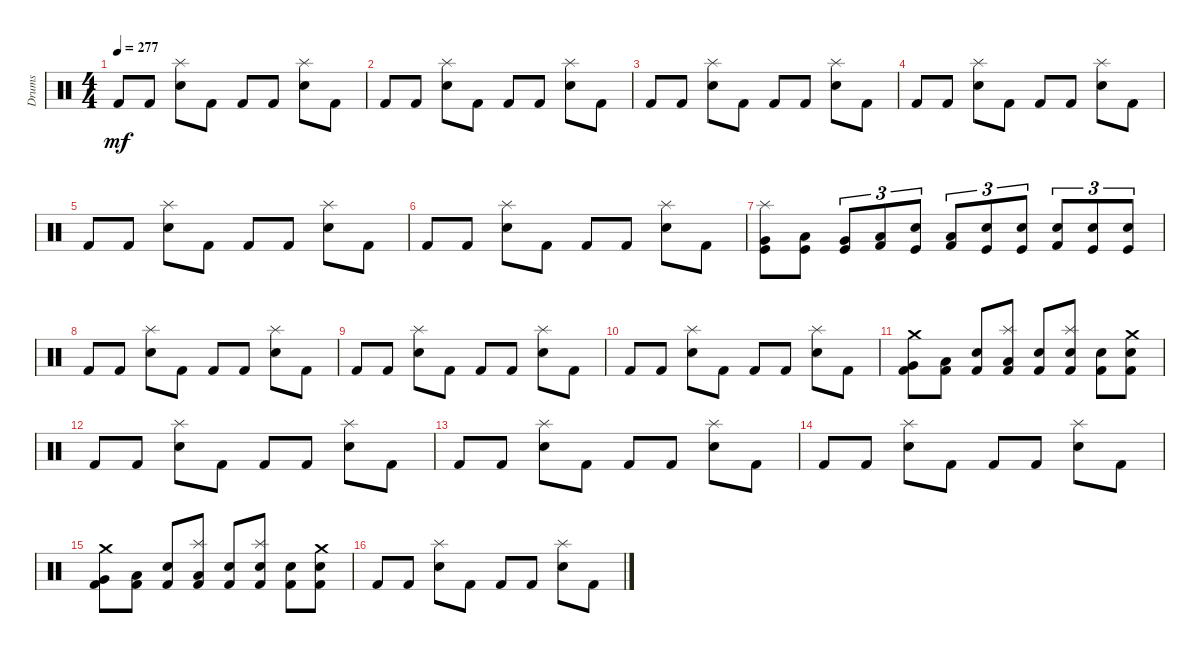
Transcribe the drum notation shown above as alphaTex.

\track ("Drums" "Drums") {instrument percussion}
\staff {score}
\articulation defaults
\ts (4 4)
\tempo 277
\clef neutral
\ks c "Kick (hit) 2".8{dy mf} "Kick (hit) 2".8
("Electric Snare (hit)" "Splash (hit)").8 "Kick (hit) 2".8 "Kick (hit) 2".8 "Kick (hit) 2".8 ("Splash (hit)" "Electric Snare (hit)").8 "Kick (hit) 2".8 |
"Kick (hit) 2".8 "Kick (hit) 2".8 ("Splash (hit)" "Electric Snare (hit)").8 "Kick (hit) 2".8 "Kick (hit) 2".8 "Kick (hit) 2".8 ("Splash (hit)" "Electric Snare (hit)").8 "Kick (hit) 2".8 |
"Kick (hit) 2".8 "Kick (hit) 2".8 ("Electric Snare (hit)" "Splash (hit)").8 "Kick (hit) 2".8 "Kick (hit) 2".8 "Kick (hit) 2".8 ("Electric Snare (hit)" "Splash (hit)").8 "Kick (hit) 2".8 |
"Kick (hit) 2".8 "Kick (hit) 2".8 ("Splash (hit)" "Electric Snare (hit)").8 "Kick (hit) 2".8 "Kick (hit) 2".8 "Kick (hit) 2".8 ("Electric Snare (hit)" "Splash (hit)").8 "Kick (hit) 2".8 |
"Kick (hit) 2".8 "Kick (hit) 2".8 ("Splash (hit)" "Electric Snare (hit)").8 "Kick (hit) 2".8 "Kick (hit) 2".8 "Kick (hit) 2".8 ("Electric Snare (hit)" "Splash (hit)").8 "Kick (hit) 2".8 |
"Kick (hit) 2".8 "Kick (hit) 2".8 ("Electric Snare (hit)" "Splash (hit)").8 "Kick (hit) 2".8 "Kick (hit) 2".8 "Kick (hit) 2".8 ("Splash (hit)" "Electric Snare (hit)").8 "Kick (hit) 2".8 |
("Very Low Tom (hit)" "Kick (hit)" "Splash (hit)").8 ("Low Floor Tom (hit)" "Kick (hit)").8 ("Very Low Tom (hit)" "Kick (hit)").8{tu (3 2)} ("Low Floor Tom (hit)" "Kick (hit) 2").8{tu (3 2)} ("Kick (hit)" "Electric Snare (hit)").8{tu (3 2)} ("Kick (hit) 2" "Low Floor Tom (hit)").8{tu (3 2)} ("Electric Snare (hit)" "Kick (hit)").8{tu (3 2)} ("Snare (hit) 2" "Kick (hit)").8{tu (3 2)} ("Kick (hit) 2" "Electric Snare (hit)").8{tu (3 2)} ("Snare (hit) 2" "Kick (hit)").8{tu (3 2)} ("Kick (hit)" "Electric Snare (hit)").8{tu (3 2)} |
"Kick (hit) 2".8 "Kick (hit) 2".8 ("Splash (hit)" "Electric Snare (hit)").8 "Kick (hit) 2".8 "Kick (hit) 2".8 "Kick (hit) 2".8 ("Electric Snare (hit)" "Splash (hit)").8 "Kick (hit) 2".8 |
"Kick (hit) 2".8 "Kick (hit) 2".8 ("Electric Snare (hit)" "Splash (hit)").8 "Kick (hit) 2".8 "Kick (hit) 2".8 "Kick (hit) 2".8 ("Electric Snare (hit)" "Splash (hit)").8 "Kick (hit) 2".8 |
"Kick (hit) 2".8 "Kick (hit) 2".8 ("Splash (hit)" "Electric Snare (hit)").8 "Kick (hit) 2".8 "Kick (hit) 2".8 "Kick (hit) 2".8 ("Electric Snare (hit)" "Splash (hit)").8 "Kick (hit) 2".8 |
("Kick (hit) 2" "Crash medium (hit)" "Very Low Tom (hit)").8 ("Low Floor Tom (hit)" "Kick (hit) 2").8 ("Electric Snare (hit)" "Kick (hit) 2").8 ("Splash (hit)" "Low Floor Tom (hit)" "Kick (hit) 2").8 ("Electric Snare (hit)" "Kick (hit) 2").8 ("Kick (hit) 2" "Splash (hit)" "Snare (hit) 2").8 ("Kick (hit) 2" "Electric Snare (hit)").8 ("Crash medium (hit)" "Kick (hit) 2" "Snare (hit) 2").8 |
"Kick (hit) 2".8 "Kick (hit) 2".8 ("Splash (hit)" "Electric Snare (hit)").8 "Kick (hit) 2".8 "Kick (hit) 2".8 "Kick (hit) 2".8 ("Electric Snare (hit)" "Splash (hit)").8 "Kick (hit) 2".8 |
"Kick (hit) 2".8 "Kick (hit) 2".8 ("Splash (hit)" "Electric Snare (hit)").8 "Kick (hit) 2".8 "Kick (hit) 2".8 "Kick (hit) 2".8 ("Electric Snare (hit)" "Splash (hit)").8 "Kick (hit) 2".8 |
"Kick (hit) 2".8 "Kick (hit) 2".8 ("Electric Snare (hit)" "Splash (hit)").8 "Kick (hit) 2".8 "Kick (hit) 2".8 "Kick (hit) 2".8 ("Electric Snare (hit)" "Splash (hit)").8 "Kick (hit) 2".8 |
("Kick (hit) 2" "Crash medium (hit)" "Very Low Tom (hit)").8 ("Kick (hit) 2" "Low Floor Tom (hit)").8 ("Kick (hit) 2" "Electric Snare (hit)").8 ("Splash (hit)" "Low Floor Tom (hit)" "Kick (hit) 2").8 ("Kick (hit) 2" "Electric Snare (hit)").8 ("Kick (hit) 2" "Snare (hit) 2" "Splash (hit)").8 ("Kick (hit) 2" "Electric Snare (hit)").8 ("Kick (hit) 2" "Crash medium (hit)" "Snare (hit) 2").8 |
"Kick (hit) 2".8 "Kick (hit) 2".8 ("Electric Snare (hit)" "Splash (hit)").8 "Kick (hit) 2".8 "Kick (hit) 2".8 "Kick (hit) 2".8 ("Electric Snare (hit)" "Splash (hit)").8 "Kick (hit) 2".8
